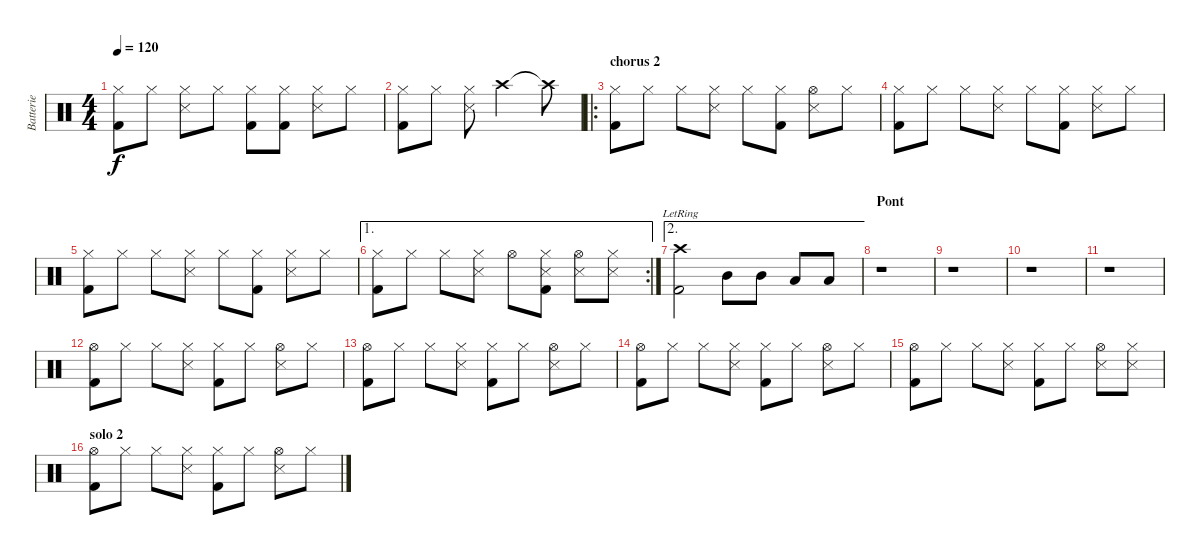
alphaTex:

\track ("Batterie" "Batterie") {instrument percussion}
\staff {score}
\articulation defaults
\ts (4 4)
\tempo 120
\clef neutral
\ks c
("Hi-Hat (closed)" "Kick (hit) 2").8{dy f} "Hi-Hat (closed)".8 ("Hi-Hat (closed)" "Snare (side stick) 3").8 "Hi-Hat (closed)".8 ("Hi-Hat (closed)" "Kick (hit) 2").8 ("Hi-Hat (closed)" "Kick (hit) 2").8 ("Hi-Hat (closed)" "Snare (side stick) 3").8 "Hi-Hat (closed)".8 |
("Hi-Hat (closed)" "Kick (hit) 2").8 "Hi-Hat (closed)".8 ("Hi-Hat (closed)" "Snare (side stick) 3").8 "Crash high (hit)".2 "Crash high (hit)"{t}.8 |
\ro
\section ("" "chorus 2")
("Hi-Hat (closed)" "Kick (hit) 2").8 "Hi-Hat (closed)".8 "Hi-Hat (closed)".8 ("Hi-Hat (closed)" "Snare (side stick) 3").8 "Hi-Hat (closed)".8 ("Hi-Hat (closed)" "Kick (hit) 2").8 ("Hi-Hat (open)" "Snare (side stick) 3").8 "Hi-Hat (closed)".8 |
("Hi-Hat (closed)" "Kick (hit) 2").8 "Hi-Hat (closed)".8 "Hi-Hat (closed)".8 ("Hi-Hat (closed)" "Snare (side stick) 3").8 "Hi-Hat (closed)".8 ("Hi-Hat (closed)" "Kick (hit) 2").8 ("Hi-Hat (closed)" "Snare (side stick) 3").8 "Hi-Hat (closed)".8 |
("Hi-Hat (closed)" "Kick (hit) 2").8 "Hi-Hat (closed)".8 "Hi-Hat (closed)".8 ("Hi-Hat (closed)" "Snare (side stick) 3").8 "Hi-Hat (closed)".8 ("Hi-Hat (closed)" "Kick (hit) 2").8 ("Hi-Hat (closed)" "Snare (side stick) 3").8 "Hi-Hat (closed)".8 |
\ae 1
\rc 2
("Hi-Hat (closed)" "Kick (hit) 2").8 "Hi-Hat (closed)".8 "Hi-Hat (closed)".8 ("Hi-Hat (closed)" "Snare (side stick) 3").8 "Hi-Hat (open)".8 ("Hi-Hat (closed)" "Snare (side stick) 3" "Kick (hit) 2").8 ("Hi-Hat (open)" "Snare (side stick) 3").8 ("Hi-Hat (closed)" "Snare (side stick) 3").8 |
\ae 2
("Crash high (hit)"{lr} "Kick (hit) 2"{lr}).2 "Mid Tom (hit)".8 "Mid Tom (hit)".8 "Low Tom (hit)".8 "Low Tom (hit)".8 |
\section ("" "Pont")
r.1 |
r.1 |
r.1 |
r.1 |
("Hi-Hat (open)" "Kick (hit) 2").8 "Hi-Hat (closed)".8 "Hi-Hat (closed)".8 ("Hi-Hat (closed)" "Snare (side stick) 3").8 ("Hi-Hat (closed)" "Kick (hit) 2").8 "Hi-Hat (closed)".8 ("Hi-Hat (open)" "Snare (side stick) 3").8 "Hi-Hat (closed)".8 |
("Hi-Hat (open)" "Kick (hit) 2").8 "Hi-Hat (closed)".8 "Hi-Hat (closed)".8 ("Hi-Hat (closed)" "Snare (side stick) 3").8 ("Hi-Hat (closed)" "Kick (hit) 2").8 "Hi-Hat (closed)".8 ("Hi-Hat (open)" "Snare (side stick) 3").8 "Hi-Hat (closed)".8 |
("Hi-Hat (open)" "Kick (hit) 2").8 "Hi-Hat (closed)".8 "Hi-Hat (closed)".8 ("Hi-Hat (closed)" "Snare (side stick) 3").8 ("Hi-Hat (closed)" "Kick (hit) 2").8 "Hi-Hat (closed)".8 ("Hi-Hat (open)" "Snare (side stick) 3").8 "Hi-Hat (closed)".8 |
("Hi-Hat (open)" "Kick (hit) 2").8 "Hi-Hat (closed)".8 "Hi-Hat (closed)".8 ("Hi-Hat (closed)" "Snare (side stick) 3").8 ("Hi-Hat (closed)" "Kick (hit) 2").8 "Hi-Hat (closed)".8 ("Hi-Hat (open)" "Snare (side stick) 3").8 ("Hi-Hat (closed)" "Snare (side stick) 3").8 |
\section ("" "solo 2")
("Hi-Hat (open)" "Kick (hit) 2").8 "Hi-Hat (closed)".8 "Hi-Hat (closed)".8 ("Hi-Hat (closed)" "Snare (side stick) 3").8 ("Hi-Hat (closed)" "Kick (hit) 2").8 "Hi-Hat (closed)".8 ("Hi-Hat (open)" "Snare (side stick) 3").8 "Hi-Hat (closed)".8
